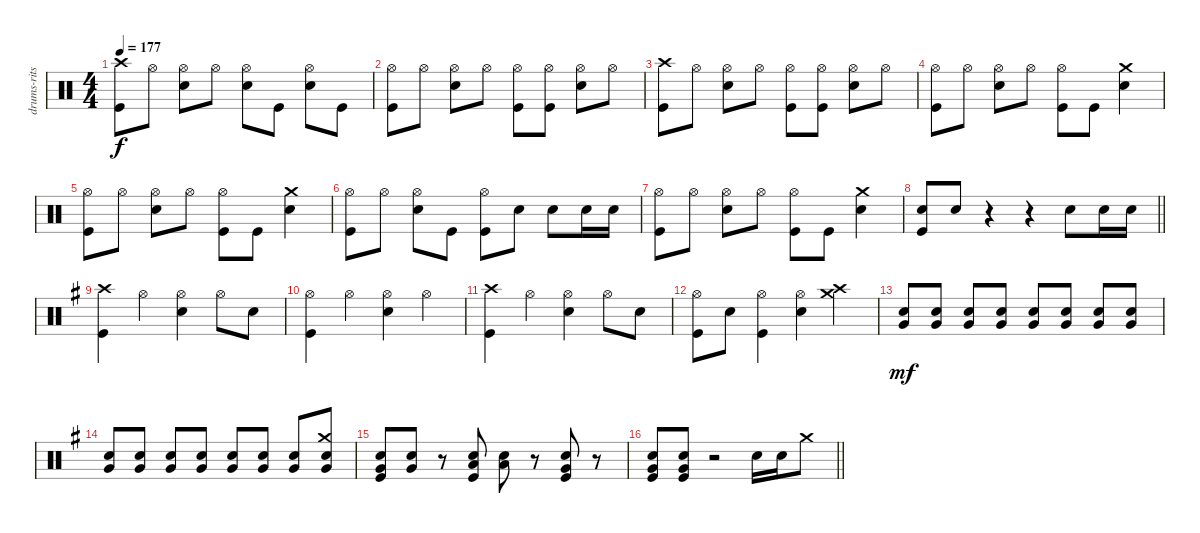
\track ("drums-ritsu takana" "drums-rits") {instrument percussion}
\staff {score}
\articulation defaults
\ts (4 4)
\tempo 177
\clef neutral
\ks c
("Kick (hit)" "Crash high (hit)").8{dy f} "Hi-Hat (open)".8 ("Hi-Hat (open)" "Snare (hit) 2").8 "Hi-Hat (open)".8 ("Hi-Hat (open)" "Snare (hit) 2").8 "Kick (hit)".8 ("Hi-Hat (open)" "Snare (hit) 2").8 "Kick (hit)".8 |
("Kick (hit)" "Hi-Hat (open)").8 "Hi-Hat (open)".8 ("Hi-Hat (open)" "Snare (hit) 2").8 "Hi-Hat (open)".8 ("Hi-Hat (open)" "Kick (hit)").8 ("Kick (hit)" "Hi-Hat (open)").8 ("Hi-Hat (open)" "Snare (hit) 2").8 "Hi-Hat (open)".8 |
("Kick (hit)" "Crash high (hit)").8 "Hi-Hat (open)".8 ("Hi-Hat (open)" "Snare (hit) 2").8 "Hi-Hat (open)".8 ("Hi-Hat (open)" "Kick (hit)").8 ("Kick (hit)" "Hi-Hat (open)").8 ("Hi-Hat (open)" "Snare (hit) 2").8 "Hi-Hat (open)".8 |
("Kick (hit)" "Hi-Hat (open)").8 "Hi-Hat (open)".8 ("Hi-Hat (open)" "Snare (hit) 2").8 "Hi-Hat (open)".8 ("Hi-Hat (open)" "Kick (hit)").8 "Kick (hit)".8 ("Crash medium (hit)" "Snare (hit) 2").4 |
("Kick (hit)" "Hi-Hat (open)").8 "Hi-Hat (open)".8 ("Hi-Hat (open)" "Snare (hit) 2").8 "Hi-Hat (open)".8 ("Hi-Hat (open)" "Kick (hit)").8 "Kick (hit)".8 ("Crash medium (hit)" "Snare (hit) 2").4 |
("Kick (hit)" "Hi-Hat (open)").8 "Hi-Hat (open)".8 ("Hi-Hat (open)" "Snare (hit) 2").8 "Kick (hit)".8 ("Hi-Hat (open)" "Kick (hit)").8 "Snare (hit) 2".8 "Snare (hit) 2".8 "Snare (hit) 2".16 "Snare (hit) 2".16 |
("Kick (hit)" "Hi-Hat (open)").8 "Hi-Hat (open)".8 ("Hi-Hat (open)" "Snare (hit) 2").8 "Hi-Hat (open)".8 ("Hi-Hat (open)" "Kick (hit)").8 "Kick (hit)".8 ("Crash medium (hit)" "Snare (hit) 2").4 |
\barLineRight lightlight
("Snare (hit) 2" "Kick (hit)").8 "Snare (hit) 2".8 r.4 r.4 "Snare (hit) 2".8 "Snare (hit) 2".16 "Snare (hit) 2".16 |
\ks eminor
("Kick (hit)" "Crash high (hit)").4 "Hi-Hat (open)".4 ("Hi-Hat (open)" "Snare (hit) 2").4 "Hi-Hat (open)".8 "Snare (hit) 2".8 |
("Hi-Hat (open)" "Kick (hit)").4 "Hi-Hat (open)".4 ("Hi-Hat (open)" "Snare (hit) 2").4 "Hi-Hat (open)".4 |
("Kick (hit)" "Crash high (hit)").4 "Hi-Hat (open)".4 ("Hi-Hat (open)" "Snare (hit) 2").4 "Hi-Hat (open)".8 "Snare (hit) 2".8 |
("Hi-Hat (open)" "Kick (hit)").8 "Snare (hit) 2".8 ("Hi-Hat (open)" "Kick (hit)").4 ("Hi-Hat (open)" "Snare (hit) 2").4 ("Crash medium (hit)" "Crash high (hit)").4 |
("Snare (hit) 2" "Very Low Tom (hit)").8{dy mf} ("Snare (hit) 2" "Very Low Tom (hit)").8 ("Snare (hit) 2" "Very Low Tom (hit)").8 ("Snare (hit) 2" "Very Low Tom (hit)").8 ("Snare (hit) 2" "Very Low Tom (hit)").8 ("Snare (hit) 2" "Very Low Tom (hit)").8 ("Snare (hit) 2" "Very Low Tom (hit)").8 ("Snare (hit) 2" "Very Low Tom (hit)").8 |
("Snare (hit) 2" "Very Low Tom (hit)").8 ("Snare (hit) 2" "Very Low Tom (hit)").8 ("Snare (hit) 2" "Very Low Tom (hit)").8 ("Snare (hit) 2" "Very Low Tom (hit)").8 ("Snare (hit) 2" "Very Low Tom (hit)").8 ("Snare (hit) 2" "Very Low Tom (hit)").8 ("Snare (hit) 2" "Very Low Tom (hit)").8 ("Snare (hit) 2" "Very Low Tom (hit)" "Crash medium (hit)").8 |
("Snare (hit) 2" "Kick (hit)" "Very Low Tom (hit)").8 ("Snare (hit) 2" "Very Low Tom (hit)").8 r.8 ("Snare (hit) 2" "Kick (hit)" "Low Floor Tom (hit)").8 ("Snare (hit) 2" "Low Floor Tom (hit)").8 r.8 ("Snare (hit) 2" "Kick (hit)" "Very Low Tom (hit)").8 r.8 |
\barLineRight lightlight
("Snare (hit) 2" "Kick (hit)" "Very Low Tom (hit)").8 ("Snare (hit) 2" "Kick (hit)" "Very Low Tom (hit)").8 r.2 "Snare (hit) 2".16 "Snare (hit) 2".16 "Crash medium (hit)".8
